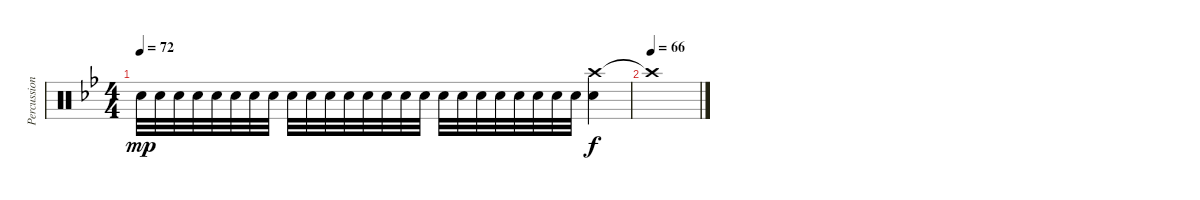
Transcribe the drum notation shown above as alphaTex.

\track ("Percussions" "Percussion") {instrument percussion}
\staff {score}
\articulation defaults
\ts (4 4)
\tempo 72
\clef neutral
\ks bb "Snare (hit) 2".32{dy mp} "Snare (hit) 2".32 "Snare (hit) 2".32 "Snare (hit) 2".32 "Snare (hit) 2".32 "Snare (hit) 2".32 "Snare (hit) 2".32 "Snare (hit) 2".32 "Snare (hit) 2".32 "Snare (hit) 2".32 "Snare (hit) 2".32 "Snare (hit) 2".32 "Snare (hit) 2".32 "Snare (hit) 2".32 "Snare (hit) 2".32 "Snare (hit) 2".32 "Snare (hit) 2".32 "Snare (hit) 2".32 "Snare (hit) 2".32 "Snare (hit) 2".32 "Snare (hit) 2".32 "Snare (hit) 2".32 "Snare (hit) 2".32 "Snare (hit) 2".32
("Crash high (hit)" "Snare (hit) 2").4{dy f} |
\tempo (66)
"Crash high (hit)"{t}.1
